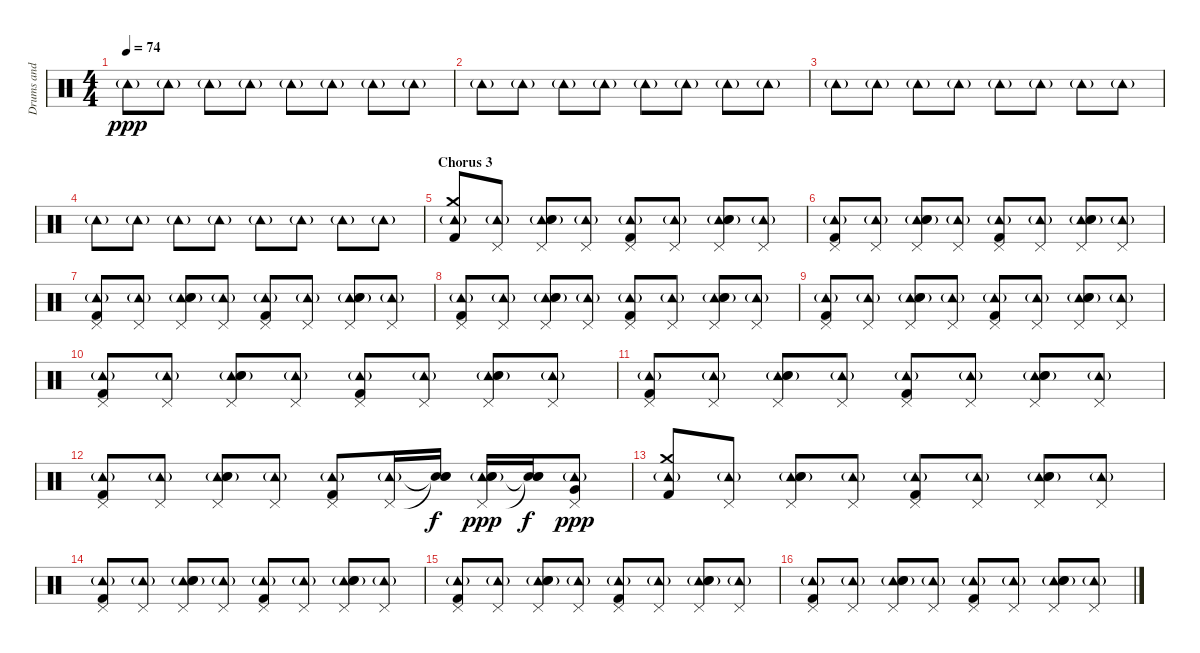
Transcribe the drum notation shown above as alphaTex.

\track ("Drums and Percussion" "Drums and ") {instrument percussion}
\staff {score}
\articulation defaults
\ts (4 4)
\tempo 74
\clef neutral
\ks c "Tambourine (hit)"{g}.8{dy ppp} "Tambourine (hit)"{g}.8 "Tambourine (hit)"{g}.8 "Tambourine (hit)"{g}.8 "Tambourine (hit)"{g}.8 "Tambourine (hit)"{g}.8 "Tambourine (hit)"{g}.8 "Tambourine (hit)"{g}.8
|
"Tambourine (hit)"{g}.8 "Tambourine (hit)"{g}.8 "Tambourine (hit)"{g}.8 "Tambourine (hit)"{g}.8 "Tambourine (hit)"{g}.8 "Tambourine (hit)"{g}.8 "Tambourine (hit)"{g}.8 "Tambourine (hit)"{g}.8 |
"Tambourine (hit)"{g}.8 "Tambourine (hit)"{g}.8 "Tambourine (hit)"{g}.8 "Tambourine (hit)"{g}.8 "Tambourine (hit)"{g}.8 "Tambourine (hit)"{g}.8 "Tambourine (hit)"{g}.8 "Tambourine (hit)"{g}.8 |
"Tambourine (hit)"{g}.8 "Tambourine (hit)"{g}.8 "Tambourine (hit)"{g}.8 "Tambourine (hit)"{g}.8 "Tambourine (hit)"{g}.8 "Tambourine (hit)"{g}.8 "Tambourine (hit)"{g}.8 "Tambourine (hit)"{g}.8 |
\section ("" "Chorus 3")
("Tambourine (hit)"{g} "Crash medium (hit)" "Kick (hit) 2").8 ("Tambourine (hit)"{g} "Pedal Hi-Hat (hit)").8 ("Tambourine (hit)"{g} "Pedal Hi-Hat (hit)" "Electric Snare (hit)" "Hand Clap (hit)").8 ("Tambourine (hit)"{g} "Pedal Hi-Hat (hit)").8 ("Tambourine (hit)"{g} "Pedal Hi-Hat (hit)" "Kick (hit) 2").8 ("Tambourine (hit)"{g} "Pedal Hi-Hat (hit)").8 ("Tambourine (hit)"{g} "Pedal Hi-Hat (hit)" "Electric Snare (hit)" "Hand Clap (hit)").8 ("Tambourine (hit)"{g} "Pedal Hi-Hat (hit)").8 |
("Tambourine (hit)"{g} "Pedal Hi-Hat (hit)" "Kick (hit) 2").8 ("Tambourine (hit)"{g} "Pedal Hi-Hat (hit)").8 ("Tambourine (hit)"{g} "Pedal Hi-Hat (hit)" "Electric Snare (hit)" "Hand Clap (hit)").8 ("Tambourine (hit)"{g} "Pedal Hi-Hat (hit)").8 ("Tambourine (hit)"{g} "Pedal Hi-Hat (hit)" "Kick (hit) 2").8 ("Tambourine (hit)"{g} "Pedal Hi-Hat (hit)").8 ("Tambourine (hit)"{g} "Pedal Hi-Hat (hit)" "Electric Snare (hit)" "Hand Clap (hit)").8 ("Tambourine (hit)"{g} "Pedal Hi-Hat (hit)").8 |
("Tambourine (hit)"{g} "Pedal Hi-Hat (hit)" "Kick (hit) 2").8 ("Tambourine (hit)"{g} "Pedal Hi-Hat (hit)").8 ("Tambourine (hit)"{g} "Pedal Hi-Hat (hit)" "Electric Snare (hit)" "Hand Clap (hit)").8 ("Tambourine (hit)"{g} "Pedal Hi-Hat (hit)").8 ("Tambourine (hit)"{g} "Pedal Hi-Hat (hit)" "Kick (hit) 2").8 ("Tambourine (hit)"{g} "Pedal Hi-Hat (hit)").8 ("Tambourine (hit)"{g} "Pedal Hi-Hat (hit)" "Electric Snare (hit)" "Hand Clap (hit)").8 ("Tambourine (hit)"{g} "Pedal Hi-Hat (hit)").8 |
("Tambourine (hit)"{g} "Pedal Hi-Hat (hit)" "Kick (hit) 2").8 ("Tambourine (hit)"{g} "Pedal Hi-Hat (hit)").8 ("Tambourine (hit)"{g} "Pedal Hi-Hat (hit)" "Electric Snare (hit)" "Hand Clap (hit)").8 ("Tambourine (hit)"{g} "Pedal Hi-Hat (hit)").8 ("Tambourine (hit)"{g} "Pedal Hi-Hat (hit)" "Kick (hit) 2").8 ("Tambourine (hit)"{g} "Pedal Hi-Hat (hit)").8 ("Tambourine (hit)"{g} "Pedal Hi-Hat (hit)" "Electric Snare (hit)" "Hand Clap (hit)").8 ("Tambourine (hit)"{g} "Pedal Hi-Hat (hit)").8 |
("Tambourine (hit)"{g} "Pedal Hi-Hat (hit)" "Kick (hit) 2").8 ("Tambourine (hit)"{g} "Pedal Hi-Hat (hit)").8 ("Tambourine (hit)"{g} "Pedal Hi-Hat (hit)" "Electric Snare (hit)" "Hand Clap (hit)").8 ("Tambourine (hit)"{g} "Pedal Hi-Hat (hit)").8 ("Tambourine (hit)"{g} "Pedal Hi-Hat (hit)" "Kick (hit) 2").8 ("Tambourine (hit)"{g} "Pedal Hi-Hat (hit)").8 ("Tambourine (hit)"{g} "Pedal Hi-Hat (hit)" "Electric Snare (hit)" "Hand Clap (hit)").8 ("Tambourine (hit)"{g} "Pedal Hi-Hat (hit)").8 |
("Tambourine (hit)"{g} "Pedal Hi-Hat (hit)" "Kick (hit) 2").8 ("Tambourine (hit)"{g} "Pedal Hi-Hat (hit)").8 ("Tambourine (hit)"{g} "Pedal Hi-Hat (hit)" "Electric Snare (hit)" "Hand Clap (hit)").8 ("Tambourine (hit)"{g} "Pedal Hi-Hat (hit)").8 ("Tambourine (hit)"{g} "Pedal Hi-Hat (hit)" "Kick (hit) 2").8 ("Tambourine (hit)"{g} "Pedal Hi-Hat (hit)").8 ("Tambourine (hit)"{g} "Pedal Hi-Hat (hit)" "Electric Snare (hit)" "Hand Clap (hit)").8 ("Tambourine (hit)"{g} "Pedal Hi-Hat (hit)").8 |
("Tambourine (hit)"{g} "Pedal Hi-Hat (hit)" "Kick (hit) 2").8 ("Tambourine (hit)"{g} "Pedal Hi-Hat (hit)").8 ("Tambourine (hit)"{g} "Pedal Hi-Hat (hit)" "Electric Snare (hit)" "Hand Clap (hit)").8 ("Tambourine (hit)"{g} "Pedal Hi-Hat (hit)").8 ("Tambourine (hit)"{g} "Pedal Hi-Hat (hit)" "Kick (hit) 2").8 ("Tambourine (hit)"{g} "Pedal Hi-Hat (hit)").8 ("Tambourine (hit)"{g} "Pedal Hi-Hat (hit)" "Electric Snare (hit)" "Hand Clap (hit)").8 ("Tambourine (hit)"{g} "Pedal Hi-Hat (hit)").8 |
("Tambourine (hit)"{g} "Pedal Hi-Hat (hit)" "Kick (hit) 2").8 ("Tambourine (hit)"{g} "Pedal Hi-Hat (hit)").8 ("Tambourine (hit)"{g} "Pedal Hi-Hat (hit)" "Electric Snare (hit)" "Hand Clap (hit)").8 ("Tambourine (hit)"{g} "Pedal Hi-Hat (hit)").8 ("Tambourine (hit)"{g} "Pedal Hi-Hat (hit)" "Kick (hit) 2").8 ("Tambourine (hit)"{g} "Pedal Hi-Hat (hit)").16 ("Snare (hit)"{t} "Snare (hit)"{t} "Electric Snare (hit)").16{dy f} ("Tambourine (hit)"{g} "Pedal Hi-Hat (hit)" "Electric Snare (hit)" "Hand Clap (hit)").16{dy ppp} ("Snare (hit)"{t} "Snare (hit)"{t} "Electric Snare (hit)").16{dy f} ("Tambourine (hit)"{g} "Pedal Hi-Hat (hit)" "Very Low Tom (hit)").8{dy ppp} |
("Tambourine (hit)"{g} "Crash medium (hit)" "Kick (hit) 2").8 ("Tambourine (hit)"{g} "Pedal Hi-Hat (hit)").8 ("Tambourine (hit)"{g} "Pedal Hi-Hat (hit)" "Electric Snare (hit)" "Hand Clap (hit)").8 ("Tambourine (hit)"{g} "Pedal Hi-Hat (hit)").8 ("Tambourine (hit)"{g} "Pedal Hi-Hat (hit)" "Kick (hit) 2").8 ("Tambourine (hit)"{g} "Pedal Hi-Hat (hit)").8 ("Tambourine (hit)"{g} "Pedal Hi-Hat (hit)" "Electric Snare (hit)" "Hand Clap (hit)").8 ("Tambourine (hit)"{g} "Pedal Hi-Hat (hit)").8 |
("Tambourine (hit)"{g} "Pedal Hi-Hat (hit)" "Kick (hit) 2").8 ("Tambourine (hit)"{g} "Pedal Hi-Hat (hit)").8 ("Tambourine (hit)"{g} "Pedal Hi-Hat (hit)" "Electric Snare (hit)" "Hand Clap (hit)").8 ("Tambourine (hit)"{g} "Pedal Hi-Hat (hit)").8 ("Tambourine (hit)"{g} "Pedal Hi-Hat (hit)" "Kick (hit) 2").8 ("Tambourine (hit)"{g} "Pedal Hi-Hat (hit)").8 ("Tambourine (hit)"{g} "Pedal Hi-Hat (hit)" "Electric Snare (hit)" "Hand Clap (hit)").8 ("Tambourine (hit)"{g} "Pedal Hi-Hat (hit)").8 |
("Tambourine (hit)"{g} "Pedal Hi-Hat (hit)" "Kick (hit) 2").8 ("Tambourine (hit)"{g} "Pedal Hi-Hat (hit)").8 ("Tambourine (hit)"{g} "Pedal Hi-Hat (hit)" "Electric Snare (hit)" "Hand Clap (hit)").8 ("Tambourine (hit)"{g} "Pedal Hi-Hat (hit)").8 ("Tambourine (hit)"{g} "Pedal Hi-Hat (hit)" "Kick (hit) 2").8 ("Tambourine (hit)"{g} "Pedal Hi-Hat (hit)").8 ("Tambourine (hit)"{g} "Pedal Hi-Hat (hit)" "Electric Snare (hit)" "Hand Clap (hit)").8 ("Tambourine (hit)"{g} "Pedal Hi-Hat (hit)").8 |
("Tambourine (hit)"{g} "Pedal Hi-Hat (hit)" "Kick (hit) 2").8 ("Tambourine (hit)"{g} "Pedal Hi-Hat (hit)").8 ("Tambourine (hit)"{g} "Pedal Hi-Hat (hit)" "Electric Snare (hit)" "Hand Clap (hit)").8 ("Tambourine (hit)"{g} "Pedal Hi-Hat (hit)").8 ("Tambourine (hit)"{g} "Pedal Hi-Hat (hit)" "Kick (hit) 2").8 ("Tambourine (hit)"{g} "Pedal Hi-Hat (hit)").8 ("Tambourine (hit)"{g} "Pedal Hi-Hat (hit)" "Electric Snare (hit)" "Hand Clap (hit)").8 ("Tambourine (hit)"{g} "Pedal Hi-Hat (hit)").8
